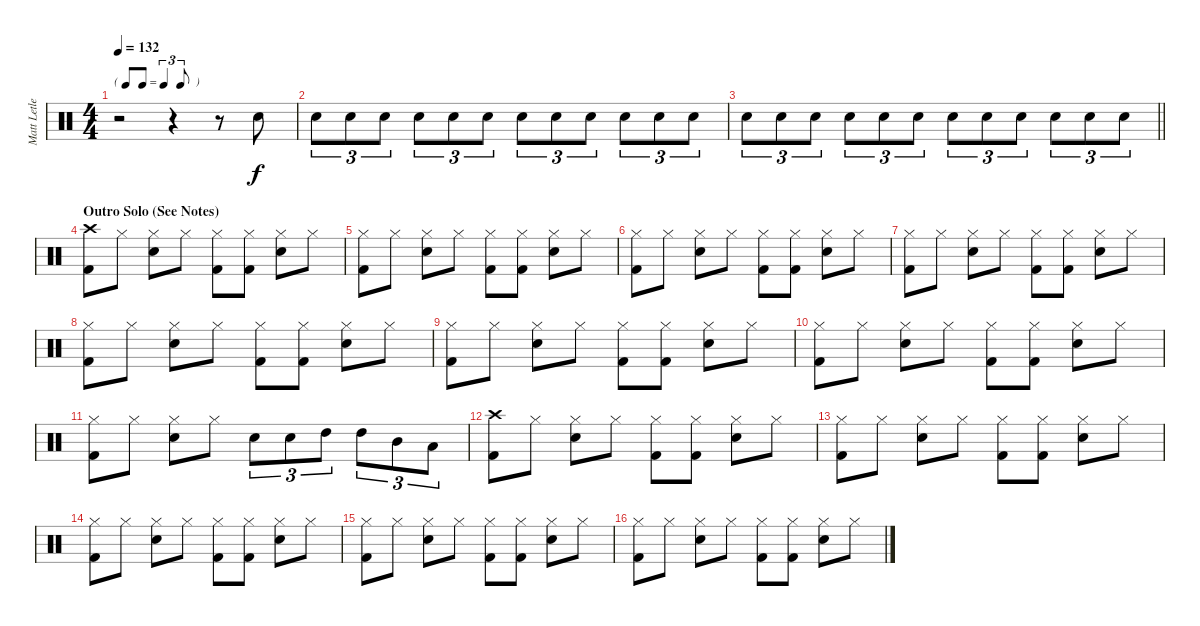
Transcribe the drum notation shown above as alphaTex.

\track ("Matt Letley" "Matt Letle") {instrument percussion}
\staff {score}
\articulation defaults
\ts (4 4)
\tf triplet8th
\tempo 132
\clef neutral
\ks c
r.2{dy f volume 8} r.4 r.8 "Electric Snare (hit)".8 |
"Electric Snare (hit)".8{tu (3 2) volume 13} "Electric Snare (hit)".8{tu (3 2)} "Electric Snare (hit)".8{tu (3 2)} "Electric Snare (hit)".8{tu (3 2)} "Electric Snare (hit)".8{tu (3 2)} "Electric Snare (hit)".8{tu (3 2)} "Electric Snare (hit)".8{tu (3 2)} "Electric Snare (hit)".8{tu (3 2)} "Electric Snare (hit)".8{tu (3 2)} "Electric Snare (hit)".8{tu (3 2)} "Electric Snare (hit)".8{tu (3 2)} "Electric Snare (hit)".8{tu (3 2)} |
\barLineRight lightlight "Electric Snare (hit)".8{tu (3 2)} "Electric Snare (hit)".8{tu (3 2)} "Electric Snare (hit)".8{tu (3 2)} "Electric Snare (hit)".8{tu (3 2)} "Electric Snare (hit)".8{tu (3 2)} "Electric Snare (hit)".8{tu (3 2)} "Electric Snare (hit)".8{tu (3 2)} "Electric Snare (hit)".8{tu (3 2)} "Electric Snare (hit)".8{tu (3 2)} "Electric Snare (hit)".8{tu (3 2)} "Electric Snare (hit)".8{tu (3 2)} "Electric Snare (hit)".8{tu (3 2)}
|
\section ("" "Outro Solo (See Notes)")
("Crash high (hit)" "Kick (hit) 2").8 "Hi-Hat (closed)".8 ("Hi-Hat (closed)" "Electric Snare (hit)").8 "Hi-Hat (closed)".8 ("Hi-Hat (closed)" "Kick (hit) 2").8 ("Hi-Hat (closed)" "Kick (hit) 2").8 ("Hi-Hat (closed)" "Electric Snare (hit)").8 "Hi-Hat (closed)".8 |
("Hi-Hat (closed)" "Kick (hit) 2").8 "Hi-Hat (closed)".8 ("Hi-Hat (closed)" "Electric Snare (hit)").8 "Hi-Hat (closed)".8 ("Hi-Hat (closed)" "Kick (hit) 2").8 ("Hi-Hat (closed)" "Kick (hit) 2").8 ("Hi-Hat (closed)" "Electric Snare (hit)").8 "Hi-Hat (closed)".8 |
("Hi-Hat (closed)" "Kick (hit) 2").8 "Hi-Hat (closed)".8 ("Hi-Hat (closed)" "Electric Snare (hit)").8 "Hi-Hat (closed)".8 ("Hi-Hat (closed)" "Kick (hit) 2").8 ("Hi-Hat (closed)" "Kick (hit) 2").8 ("Hi-Hat (closed)" "Electric Snare (hit)").8 "Hi-Hat (closed)".8 |
("Hi-Hat (closed)" "Kick (hit) 2").8 "Hi-Hat (closed)".8 ("Hi-Hat (closed)" "Electric Snare (hit)").8 "Hi-Hat (closed)".8 ("Hi-Hat (closed)" "Kick (hit) 2").8 ("Hi-Hat (closed)" "Kick (hit) 2").8 ("Hi-Hat (closed)" "Electric Snare (hit)").8 "Hi-Hat (closed)".8 |
("Hi-Hat (closed)" "Kick (hit) 2").8 "Hi-Hat (closed)".8 ("Hi-Hat (closed)" "Electric Snare (hit)").8 "Hi-Hat (closed)".8 ("Hi-Hat (closed)" "Kick (hit) 2").8 ("Hi-Hat (closed)" "Kick (hit) 2").8 ("Hi-Hat (closed)" "Electric Snare (hit)").8 "Hi-Hat (closed)".8 |
("Hi-Hat (closed)" "Kick (hit) 2").8 "Hi-Hat (closed)".8 ("Hi-Hat (closed)" "Electric Snare (hit)").8 "Hi-Hat (closed)".8 ("Hi-Hat (closed)" "Kick (hit) 2").8 ("Hi-Hat (closed)" "Kick (hit) 2").8 ("Hi-Hat (closed)" "Electric Snare (hit)").8 "Hi-Hat (closed)".8 |
("Hi-Hat (closed)" "Kick (hit) 2").8 "Hi-Hat (closed)".8 ("Hi-Hat (closed)" "Electric Snare (hit)").8 "Hi-Hat (closed)".8 ("Hi-Hat (closed)" "Kick (hit) 2").8 ("Hi-Hat (closed)" "Kick (hit) 2").8 ("Hi-Hat (closed)" "Electric Snare (hit)").8 "Hi-Hat (closed)".8 |
("Hi-Hat (closed)" "Kick (hit) 2").8 "Hi-Hat (closed)".8 ("Hi-Hat (closed)" "Electric Snare (hit)").8 "Hi-Hat (closed)".8 "Electric Snare (hit)".8{tu (3 2)} "Electric Snare (hit)".8{tu (3 2)} "High Tom (hit)".8{tu (3 2)} "High Tom (hit)".8{tu (3 2)} "Mid Tom (hit)".8{tu (3 2)} "Low Tom (hit)".8{tu (3 2)} |
("Crash high (hit)" "Kick (hit) 2").8 "Hi-Hat (closed)".8 ("Hi-Hat (closed)" "Electric Snare (hit)").8 "Hi-Hat (closed)".8 ("Hi-Hat (closed)" "Kick (hit) 2").8 ("Hi-Hat (closed)" "Kick (hit) 2").8 ("Hi-Hat (closed)" "Electric Snare (hit)").8 "Hi-Hat (closed)".8 |
("Hi-Hat (closed)" "Kick (hit) 2").8 "Hi-Hat (closed)".8 ("Hi-Hat (closed)" "Electric Snare (hit)").8 "Hi-Hat (closed)".8 ("Hi-Hat (closed)" "Kick (hit) 2").8 ("Hi-Hat (closed)" "Kick (hit) 2").8 ("Hi-Hat (closed)" "Electric Snare (hit)").8 "Hi-Hat (closed)".8 |
("Hi-Hat (closed)" "Kick (hit) 2").8 "Hi-Hat (closed)".8 ("Hi-Hat (closed)" "Electric Snare (hit)").8 "Hi-Hat (closed)".8 ("Hi-Hat (closed)" "Kick (hit) 2").8 ("Hi-Hat (closed)" "Kick (hit) 2").8 ("Hi-Hat (closed)" "Electric Snare (hit)").8 "Hi-Hat (closed)".8 |
("Hi-Hat (closed)" "Kick (hit) 2").8 "Hi-Hat (closed)".8 ("Hi-Hat (closed)" "Electric Snare (hit)").8 "Hi-Hat (closed)".8 ("Hi-Hat (closed)" "Kick (hit) 2").8 ("Hi-Hat (closed)" "Kick (hit) 2").8 ("Hi-Hat (closed)" "Electric Snare (hit)").8 "Hi-Hat (closed)".8 |
("Hi-Hat (closed)" "Kick (hit) 2").8 "Hi-Hat (closed)".8 ("Hi-Hat (closed)" "Electric Snare (hit)").8 "Hi-Hat (closed)".8 ("Hi-Hat (closed)" "Kick (hit) 2").8 ("Hi-Hat (closed)" "Kick (hit) 2").8 ("Hi-Hat (closed)" "Electric Snare (hit)").8 "Hi-Hat (closed)".8
